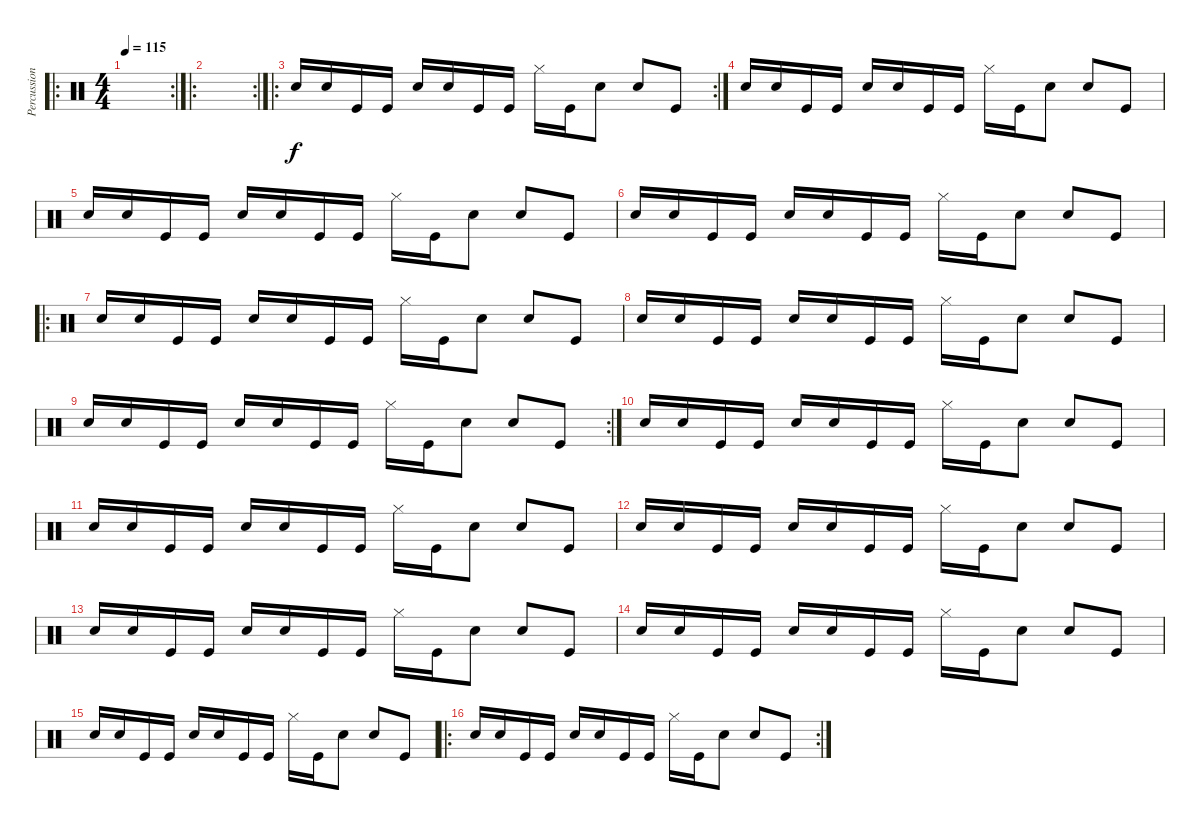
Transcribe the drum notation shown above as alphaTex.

\track ("Percussions" "Percussion") {instrument percussion}
\staff {score}
\articulation defaults
\ro
\rc 2
\ts (4 4)
\tempo 115
\clef neutral
\ks c
|
\ro
\rc 2
|
\ro
\rc 2 "Electric Snare (hit)".16 "Electric Snare (hit)".16 "Kick (hit)".16 "Kick (hit)".16 "Electric Snare (hit)".16 "Electric Snare (hit)".16 "Kick (hit)".16 "Kick (hit)".16 "Hi-Hat (closed)".16 "Kick (hit)".16 "Electric Snare (hit)".8 "Electric Snare (hit)".8 "Kick (hit)".8
|
"Electric Snare (hit)".16 "Electric Snare (hit)".16 "Kick (hit)".16 "Kick (hit)".16 "Electric Snare (hit)".16 "Electric Snare (hit)".16 "Kick (hit)".16 "Kick (hit)".16 "Hi-Hat (closed)".16 "Kick (hit)".16 "Electric Snare (hit)".8 "Electric Snare (hit)".8 "Kick (hit)".8 |
"Electric Snare (hit)".16 "Electric Snare (hit)".16 "Kick (hit)".16 "Kick (hit)".16 "Electric Snare (hit)".16 "Electric Snare (hit)".16 "Kick (hit)".16 "Kick (hit)".16 "Hi-Hat (closed)".16 "Kick (hit)".16 "Electric Snare (hit)".8 "Electric Snare (hit)".8 "Kick (hit)".8 |
"Electric Snare (hit)".16 "Electric Snare (hit)".16 "Kick (hit)".16 "Kick (hit)".16 "Electric Snare (hit)".16 "Electric Snare (hit)".16 "Kick (hit)".16 "Kick (hit)".16 "Hi-Hat (closed)".16 "Kick (hit)".16 "Electric Snare (hit)".8 "Electric Snare (hit)".8 "Kick (hit)".8 |
\ro "Electric Snare (hit)".16 "Electric Snare (hit)".16 "Kick (hit)".16 "Kick (hit)".16 "Electric Snare (hit)".16 "Electric Snare (hit)".16 "Kick (hit)".16 "Kick (hit)".16 "Hi-Hat (closed)".16 "Kick (hit)".16 "Electric Snare (hit)".8 "Electric Snare (hit)".8 "Kick (hit)".8
|
"Electric Snare (hit)".16 "Electric Snare (hit)".16 "Kick (hit)".16 "Kick (hit)".16 "Electric Snare (hit)".16 "Electric Snare (hit)".16 "Kick (hit)".16 "Kick (hit)".16 "Hi-Hat (closed)".16 "Kick (hit)".16 "Electric Snare (hit)".8 "Electric Snare (hit)".8 "Kick (hit)".8 |
\rc 2 "Electric Snare (hit)".16 "Electric Snare (hit)".16 "Kick (hit)".16 "Kick (hit)".16 "Electric Snare (hit)".16 "Electric Snare (hit)".16 "Kick (hit)".16 "Kick (hit)".16 "Hi-Hat (closed)".16 "Kick (hit)".16 "Electric Snare (hit)".8 "Electric Snare (hit)".8 "Kick (hit)".8
|
"Electric Snare (hit)".16 "Electric Snare (hit)".16 "Kick (hit)".16 "Kick (hit)".16 "Electric Snare (hit)".16 "Electric Snare (hit)".16 "Kick (hit)".16 "Kick (hit)".16 "Hi-Hat (closed)".16 "Kick (hit)".16 "Electric Snare (hit)".8 "Electric Snare (hit)".8 "Kick (hit)".8 |
"Electric Snare (hit)".16 "Electric Snare (hit)".16 "Kick (hit)".16 "Kick (hit)".16 "Electric Snare (hit)".16 "Electric Snare (hit)".16 "Kick (hit)".16 "Kick (hit)".16 "Hi-Hat (closed)".16 "Kick (hit)".16 "Electric Snare (hit)".8 "Electric Snare (hit)".8 "Kick (hit)".8 |
"Electric Snare (hit)".16 "Electric Snare (hit)".16 "Kick (hit)".16 "Kick (hit)".16 "Electric Snare (hit)".16 "Electric Snare (hit)".16 "Kick (hit)".16 "Kick (hit)".16 "Hi-Hat (closed)".16 "Kick (hit)".16 "Electric Snare (hit)".8 "Electric Snare (hit)".8 "Kick (hit)".8 |
"Electric Snare (hit)".16 "Electric Snare (hit)".16 "Kick (hit)".16 "Kick (hit)".16 "Electric Snare (hit)".16 "Electric Snare (hit)".16 "Kick (hit)".16 "Kick (hit)".16 "Hi-Hat (closed)".16 "Kick (hit)".16 "Electric Snare (hit)".8 "Electric Snare (hit)".8 "Kick (hit)".8 |
"Electric Snare (hit)".16 "Electric Snare (hit)".16 "Kick (hit)".16 "Kick (hit)".16 "Electric Snare (hit)".16 "Electric Snare (hit)".16 "Kick (hit)".16 "Kick (hit)".16 "Hi-Hat (closed)".16 "Kick (hit)".16 "Electric Snare (hit)".8 "Electric Snare (hit)".8 "Kick (hit)".8 |
"Electric Snare (hit)".16 "Electric Snare (hit)".16 "Kick (hit)".16 "Kick (hit)".16 "Electric Snare (hit)".16 "Electric Snare (hit)".16 "Kick (hit)".16 "Kick (hit)".16 "Hi-Hat (closed)".16 "Kick (hit)".16 "Electric Snare (hit)".8 "Electric Snare (hit)".8 "Kick (hit)".8 |
\ro
\rc 2 "Electric Snare (hit)".16 "Electric Snare (hit)".16 "Kick (hit)".16 "Kick (hit)".16 "Electric Snare (hit)".16 "Electric Snare (hit)".16 "Kick (hit)".16 "Kick (hit)".16 "Hi-Hat (closed)".16 "Kick (hit)".16 "Electric Snare (hit)".8 "Electric Snare (hit)".8 "Kick (hit)".8
